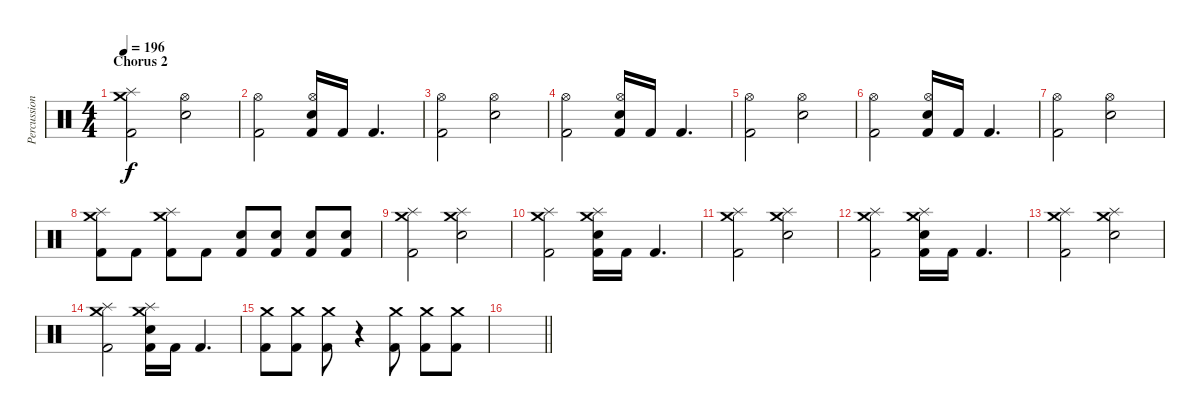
\track ("Percussion" "Percussion") {instrument percussion}
\staff {score}
\articulation defaults
\ts (4 4)
\section ("" "Chorus 2")
\tempo 196
\clef neutral
\ks c
("Splash (hit)" "Crash medium (hit)" "Kick (hit) 2").2{dy f} ("Hi-Hat (open)" "Electric Snare (hit)").2 |
("Hi-Hat (open)" "Kick (hit) 2").2 ("Hi-Hat (open)" "Electric Snare (hit)" "Kick (hit) 2").16 "Kick (hit) 2".16 "Kick (hit) 2".4{d} |
("Hi-Hat (open)" "Kick (hit) 2").2 ("Hi-Hat (open)" "Electric Snare (hit)").2 |
("Hi-Hat (open)" "Kick (hit) 2").2 ("Hi-Hat (open)" "Electric Snare (hit)" "Kick (hit) 2").16 "Kick (hit) 2".16 "Kick (hit) 2".4{d} |
("Hi-Hat (open)" "Kick (hit) 2").2 ("Hi-Hat (open)" "Electric Snare (hit)").2 |
("Hi-Hat (open)" "Kick (hit) 2").2 ("Hi-Hat (open)" "Electric Snare (hit)" "Kick (hit) 2").16 "Kick (hit) 2".16 "Kick (hit) 2".4{d} |
("Hi-Hat (open)" "Kick (hit) 2").2 ("Hi-Hat (open)" "Electric Snare (hit)").2 |
("Splash (hit)" "Crash medium (hit)" "Kick (hit) 2").8 "Kick (hit) 2".8 ("Splash (hit)" "Crash medium (hit)" "Kick (hit) 2").8 "Kick (hit) 2".8 ("Electric Snare (hit)" "Kick (hit) 2").8 ("Electric Snare (hit)" "Kick (hit) 2").8 ("Electric Snare (hit)" "Kick (hit) 2").8 ("Electric Snare (hit)" "Kick (hit) 2").8 |
("Splash (hit)" "Crash medium (hit)" "Kick (hit) 2").2 ("Splash (hit)" "Crash medium (hit)" "Electric Snare (hit)").2 |
("Splash (hit)" "Crash medium (hit)" "Kick (hit) 2").2 ("Splash (hit)" "Crash medium (hit)" "Electric Snare (hit)" "Kick (hit) 2").16 "Kick (hit) 2".16 "Kick (hit) 2".4{d} |
("Splash (hit)" "Crash medium (hit)" "Kick (hit) 2").2 ("Splash (hit)" "Crash medium (hit)" "Electric Snare (hit)").2 |
("Splash (hit)" "Crash medium (hit)" "Kick (hit) 2").2 ("Splash (hit)" "Crash medium (hit)" "Electric Snare (hit)" "Kick (hit) 2").16 "Kick (hit) 2".16 "Kick (hit) 2".4{d} |
("Splash (hit)" "Crash medium (hit)" "Kick (hit) 2").2 ("Splash (hit)" "Crash medium (hit)" "Electric Snare (hit)").2 |
("Splash (hit)" "Crash medium (hit)" "Kick (hit) 2").2 ("Splash (hit)" "Crash medium (hit)" "Electric Snare (hit)" "Kick (hit) 2").16 "Kick (hit) 2".16 "Kick (hit) 2".4{d} |
("Crash medium (hit)" "Kick (hit) 2").8 ("Crash medium (hit)" "Kick (hit) 2").8 ("Crash medium (hit)" "Kick (hit) 2").8 r.4 ("Crash medium (hit)" "Kick (hit) 2").8 ("Crash medium (hit)" "Kick (hit) 2").8 ("Crash medium (hit)" "Kick (hit) 2").8 |
\barLineRight lightlight
